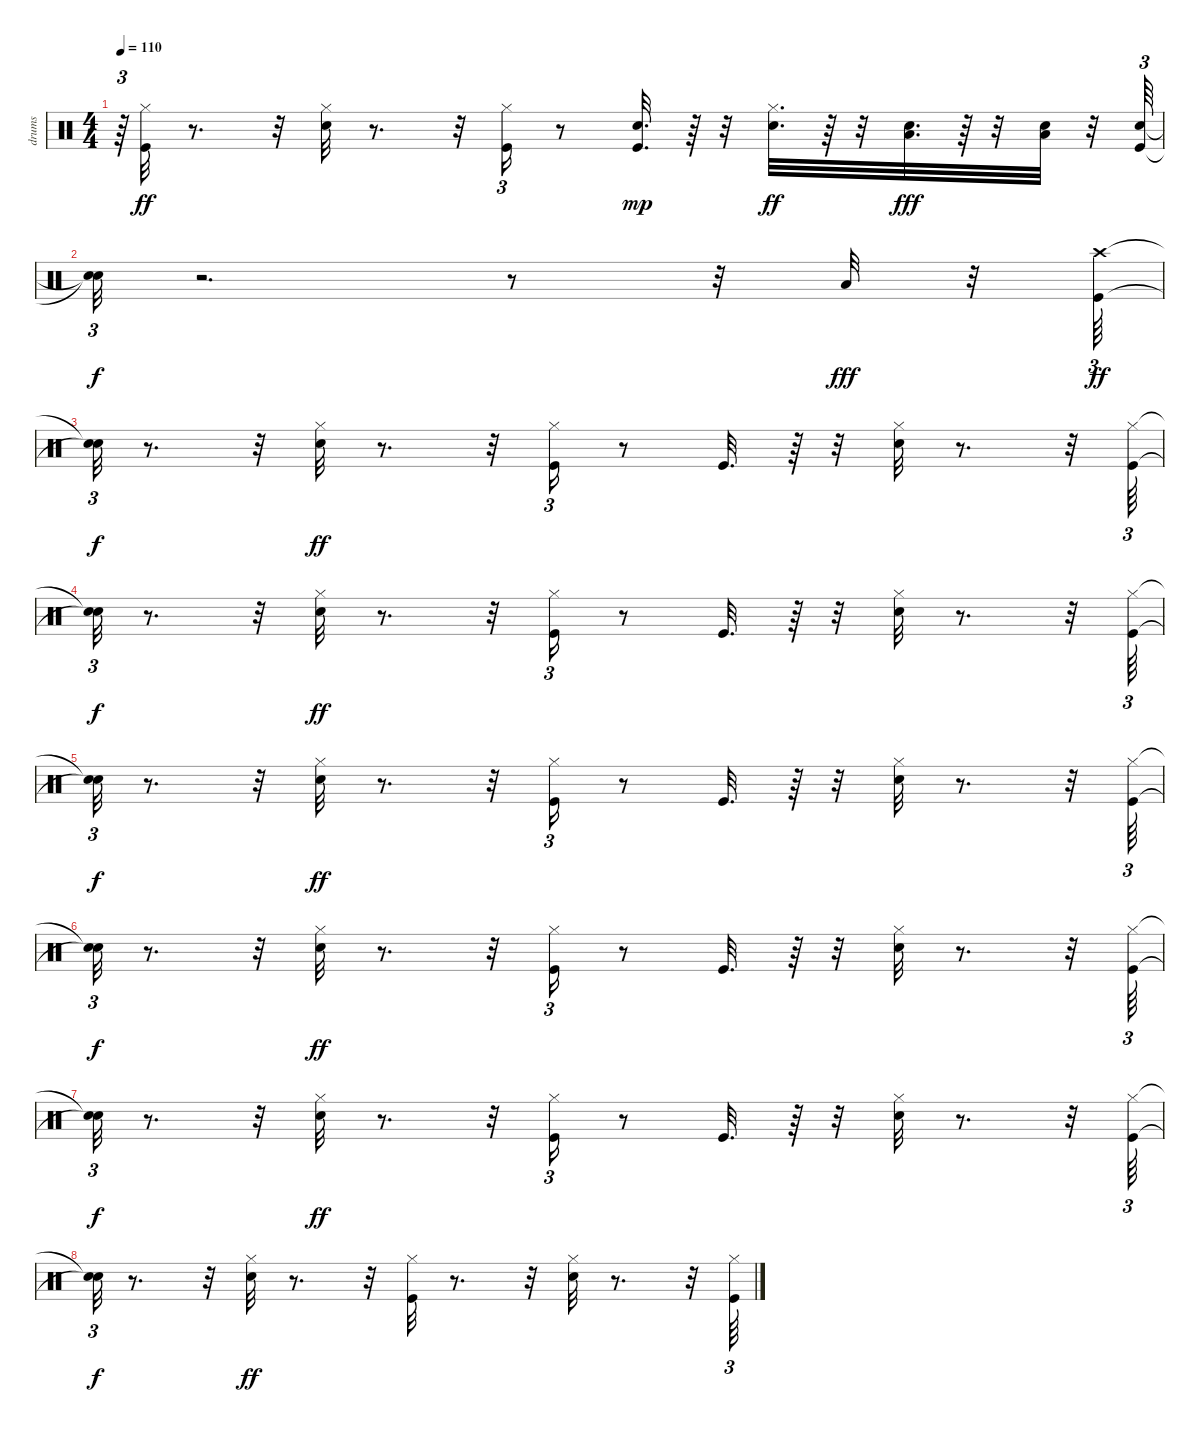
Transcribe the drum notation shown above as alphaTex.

\track ("drums    " "drums    ") {instrument percussion}
\staff {score}
\articulation defaults
\ts (4 4)
\tempo 110
\clef neutral
\ks c
r.64{tu (3 2) dy ff} ("Kick (hit)" "Hi-Hat (closed)").32 r.8{d} r.32 ("Snare (hit) 2" "Hi-Hat (closed)").32 r.8{d} r.32 ("Kick (hit)" "Hi-Hat (closed)").16{tu (3 2)} r.8 ("Kick (hit)" "Snare (hit) 2").32{d dy mp} r.64 r.32 ("Snare (hit) 2" "Hi-Hat (closed)").32{d dy ff} r.64 r.32 ("Snare (hit) 2" "Low Tom (hit)").32{d dy fff} r.64 r.32 ("Snare (hit) 2" "Low Floor Tom (hit)").32 r.32 ("Kick (hit)" "Snare (hit) 2").64{tu (3 2)} |
("Snare (hit)"{t} "Snare (hit)"{t}).32{tu (3 2) dy f} r.2{d} r.8 r.32 "Low Tom (hit)".32{dy fff} r.32 ("Crash high (hit)" "Kick (hit)").64{tu (3 2) dy ff} |
("Snare (hit)"{t} "Snare (hit)"{t}).32{tu (3 2) dy f} r.8{d} r.32 ("Snare (hit) 2" "Hi-Hat (closed)").32{dy ff} r.8{d} r.32 ("Kick (hit)" "Hi-Hat (closed)").16{tu (3 2)} r.8 "Kick (hit)".32{d} r.64 r.32 ("Snare (hit) 2" "Hi-Hat (closed)").32 r.8{d} r.32 ("Kick (hit)" "Hi-Hat (closed)").64{tu (3 2)} |
("Snare (hit)"{t} "Snare (hit)"{t}).32{tu (3 2) dy f} r.8{d} r.32 ("Snare (hit) 2" "Hi-Hat (closed)").32{dy ff} r.8{d} r.32 ("Kick (hit)" "Hi-Hat (closed)").16{tu (3 2)} r.8 "Kick (hit)".32{d} r.64 r.32 ("Snare (hit) 2" "Hi-Hat (closed)").32 r.8{d} r.32 ("Kick (hit)" "Hi-Hat (closed)").64{tu (3 2)} |
("Snare (hit)"{t} "Snare (hit)"{t}).32{tu (3 2) dy f} r.8{d} r.32 ("Snare (hit) 2" "Hi-Hat (closed)").32{dy ff} r.8{d} r.32 ("Kick (hit)" "Hi-Hat (closed)").16{tu (3 2)} r.8 "Kick (hit)".32{d} r.64 r.32 ("Snare (hit) 2" "Hi-Hat (closed)").32 r.8{d} r.32 ("Kick (hit)" "Hi-Hat (closed)").64{tu (3 2)} |
("Snare (hit)"{t} "Snare (hit)"{t}).32{tu (3 2) dy f} r.8{d} r.32 ("Snare (hit) 2" "Hi-Hat (closed)").32{dy ff} r.8{d} r.32 ("Kick (hit)" "Hi-Hat (closed)").16{tu (3 2)} r.8 "Kick (hit)".32{d} r.64 r.32 ("Snare (hit) 2" "Hi-Hat (closed)").32 r.8{d} r.32 ("Kick (hit)" "Hi-Hat (closed)").64{tu (3 2)} |
("Snare (hit)"{t} "Snare (hit)"{t}).32{tu (3 2) dy f} r.8{d} r.32 ("Snare (hit) 2" "Hi-Hat (closed)").32{dy ff} r.8{d} r.32 ("Kick (hit)" "Hi-Hat (closed)").16{tu (3 2)} r.8 "Kick (hit)".32{d} r.64 r.32 ("Snare (hit) 2" "Hi-Hat (closed)").32 r.8{d} r.32 ("Kick (hit)" "Hi-Hat (closed)").64{tu (3 2)} |
("Snare (hit)"{t} "Snare (hit)"{t}).32{tu (3 2) dy f} r.8{d} r.32 ("Snare (hit) 2" "Hi-Hat (closed)").32{dy ff} r.8{d} r.32 ("Kick (hit)" "Hi-Hat (closed)").32 r.8{d} r.32 ("Snare (hit) 2" "Hi-Hat (closed)").32 r.8{d} r.32 ("Kick (hit)" "Hi-Hat (closed)").64{tu (3 2)}
